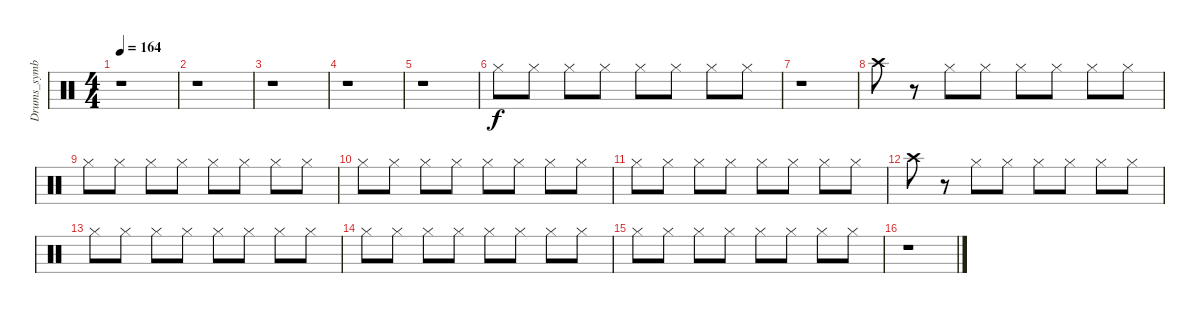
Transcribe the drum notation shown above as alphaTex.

\track ("Drums_symbal" "Drums_symb") {instrument percussion}
\staff {score}
\articulation defaults
\ts (4 4)
\tempo 164
\clef neutral
\ks c
r.1{dy f} |
r.1 |
r.1 |
r.1 |
r.1 |
"Hi-Hat (closed)".8 "Hi-Hat (closed)".8 "Hi-Hat (closed)".8 "Hi-Hat (closed)".8 "Hi-Hat (closed)".8 "Hi-Hat (closed)".8 "Hi-Hat (closed)".8 "Hi-Hat (closed)".8 |
r.1 |
"Crash high (hit)".8 r.8 "Hi-Hat (closed)".8 "Hi-Hat (closed)".8 "Hi-Hat (closed)".8 "Hi-Hat (closed)".8 "Hi-Hat (closed)".8 "Hi-Hat (closed)".8 |
"Hi-Hat (closed)".8 "Hi-Hat (closed)".8 "Hi-Hat (closed)".8 "Hi-Hat (closed)".8 "Hi-Hat (closed)".8 "Hi-Hat (closed)".8 "Hi-Hat (closed)".8 "Hi-Hat (closed)".8 |
"Hi-Hat (closed)".8 "Hi-Hat (closed)".8 "Hi-Hat (closed)".8 "Hi-Hat (closed)".8 "Hi-Hat (closed)".8 "Hi-Hat (closed)".8 "Hi-Hat (closed)".8 "Hi-Hat (closed)".8 |
"Hi-Hat (closed)".8 "Hi-Hat (closed)".8 "Hi-Hat (closed)".8 "Hi-Hat (closed)".8 "Hi-Hat (closed)".8 "Hi-Hat (closed)".8 "Hi-Hat (closed)".8 "Hi-Hat (closed)".8 |
"Crash high (hit)".8 r.8 "Hi-Hat (closed)".8 "Hi-Hat (closed)".8 "Hi-Hat (closed)".8 "Hi-Hat (closed)".8 "Hi-Hat (closed)".8 "Hi-Hat (closed)".8 |
"Hi-Hat (closed)".8 "Hi-Hat (closed)".8 "Hi-Hat (closed)".8 "Hi-Hat (closed)".8 "Hi-Hat (closed)".8 "Hi-Hat (closed)".8 "Hi-Hat (closed)".8 "Hi-Hat (closed)".8 |
"Hi-Hat (closed)".8 "Hi-Hat (closed)".8 "Hi-Hat (closed)".8 "Hi-Hat (closed)".8 "Hi-Hat (closed)".8 "Hi-Hat (closed)".8 "Hi-Hat (closed)".8 "Hi-Hat (closed)".8 |
"Hi-Hat (closed)".8 "Hi-Hat (closed)".8 "Hi-Hat (closed)".8 "Hi-Hat (closed)".8 "Hi-Hat (closed)".8 "Hi-Hat (closed)".8 "Hi-Hat (closed)".8 "Hi-Hat (closed)".8 |
r.1
